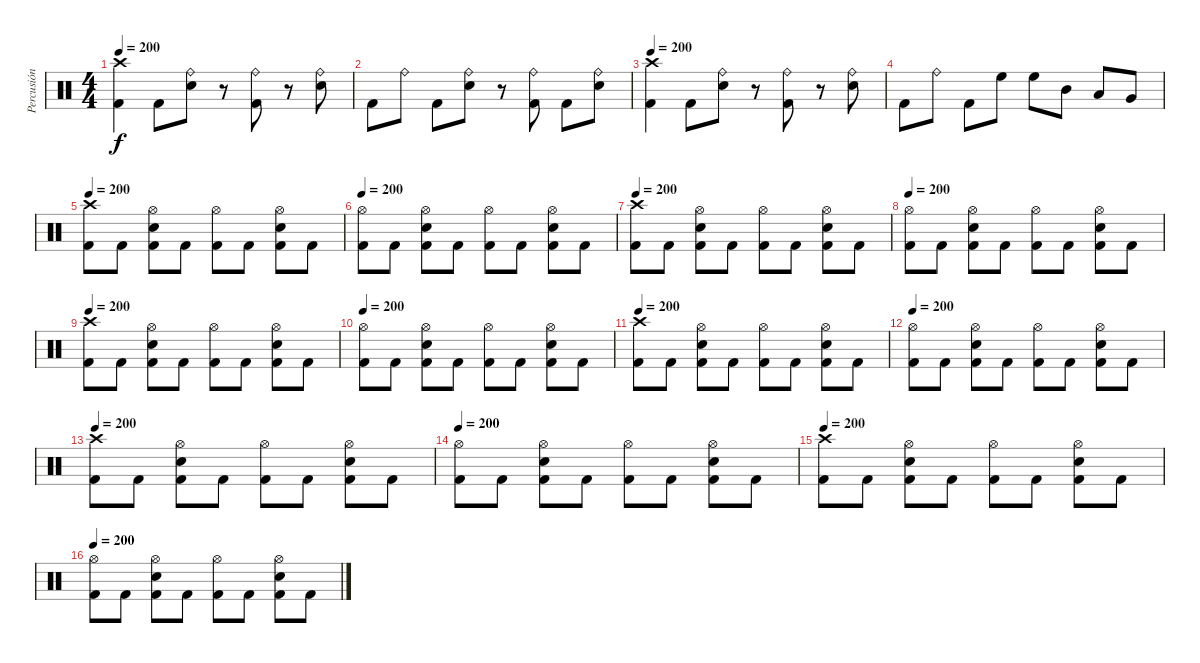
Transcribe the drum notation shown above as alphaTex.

\track ("Percusión" "Percusión") {instrument percussion}
\staff {score}
\articulation defaults
\ts (4 4)
\tempo 200
\clef neutral
\ks c
("Crash high (hit)" "Kick (hit) 2").4{dy f} "Kick (hit) 2".8 ("Ride (bell)" "Electric Snare (hit)").8 r.8 ("Ride (bell)" "Kick (hit) 2").8 r.8 ("Ride (bell)" "Electric Snare (hit)").8 |
"Kick (hit) 2".8 "Ride (bell)".8 "Kick (hit) 2".8 ("Ride (bell)" "Electric Snare (hit)").8 r.8 ("Ride (bell)" "Kick (hit) 2").8 "Kick (hit) 2".8 ("Ride (bell)" "Electric Snare (hit)").8 |
\tempo 200
("Crash high (hit)" "Kick (hit) 2").4 "Kick (hit) 2".8 ("Ride (bell)" "Electric Snare (hit)").8 r.8 ("Ride (bell)" "Kick (hit) 2").8 r.8 ("Ride (bell)" "Electric Snare (hit)").8 |
"Kick (hit) 2".8 "Ride (bell)".8 "Kick (hit) 2".8 "High Floor Tom (hit)".8 "High Floor Tom (hit)".8 "Mid Tom (hit)".8 "Low Tom (hit)".8 "Very Low Tom (hit)".8 |
\tempo 200
("Crash high (hit)" "Kick (hit) 2").8 "Kick (hit) 2".8 ("Hi-Hat (open)" "Kick (hit) 2" "Electric Snare (hit)").8 "Kick (hit) 2".8 ("Hi-Hat (open)" "Kick (hit) 2").8 "Kick (hit) 2".8 ("Hi-Hat (open)" "Kick (hit) 2" "Electric Snare (hit)").8 "Kick (hit) 2".8 |
\tempo 200
("Hi-Hat (open)" "Kick (hit) 2").8 "Kick (hit) 2".8 ("Hi-Hat (open)" "Kick (hit) 2" "Electric Snare (hit)").8 "Kick (hit) 2".8 ("Hi-Hat (open)" "Kick (hit) 2").8 "Kick (hit) 2".8 ("Hi-Hat (open)" "Kick (hit) 2" "Electric Snare (hit)").8 "Kick (hit) 2".8 |
\tempo 200
("Crash high (hit)" "Kick (hit) 2").8 "Kick (hit) 2".8 ("Hi-Hat (open)" "Kick (hit) 2" "Electric Snare (hit)").8 "Kick (hit) 2".8 ("Hi-Hat (open)" "Kick (hit) 2").8 "Kick (hit) 2".8 ("Hi-Hat (open)" "Kick (hit) 2" "Electric Snare (hit)").8 "Kick (hit) 2".8 |
\tempo 200
("Hi-Hat (open)" "Kick (hit) 2").8 "Kick (hit) 2".8 ("Hi-Hat (open)" "Kick (hit) 2" "Electric Snare (hit)").8 "Kick (hit) 2".8 ("Hi-Hat (open)" "Kick (hit) 2").8 "Kick (hit) 2".8 ("Hi-Hat (open)" "Kick (hit) 2" "Electric Snare (hit)").8 "Kick (hit) 2".8 |
\tempo 200
("Crash high (hit)" "Kick (hit) 2").8 "Kick (hit) 2".8 ("Hi-Hat (open)" "Kick (hit) 2" "Electric Snare (hit)").8 "Kick (hit) 2".8 ("Hi-Hat (open)" "Kick (hit) 2").8 "Kick (hit) 2".8 ("Hi-Hat (open)" "Kick (hit) 2" "Electric Snare (hit)").8 "Kick (hit) 2".8 |
\tempo 200
("Hi-Hat (open)" "Kick (hit) 2").8 "Kick (hit) 2".8 ("Hi-Hat (open)" "Kick (hit) 2" "Electric Snare (hit)").8 "Kick (hit) 2".8 ("Hi-Hat (open)" "Kick (hit) 2").8 "Kick (hit) 2".8 ("Hi-Hat (open)" "Kick (hit) 2" "Electric Snare (hit)").8 "Kick (hit) 2".8 |
\tempo 200
("Crash high (hit)" "Kick (hit) 2").8 "Kick (hit) 2".8 ("Hi-Hat (open)" "Kick (hit) 2" "Electric Snare (hit)").8 "Kick (hit) 2".8 ("Hi-Hat (open)" "Kick (hit) 2").8 "Kick (hit) 2".8 ("Hi-Hat (open)" "Kick (hit) 2" "Electric Snare (hit)").8 "Kick (hit) 2".8 |
\tempo 200
("Hi-Hat (open)" "Kick (hit) 2").8 "Kick (hit) 2".8 ("Hi-Hat (open)" "Kick (hit) 2" "Electric Snare (hit)").8 "Kick (hit) 2".8 ("Hi-Hat (open)" "Kick (hit) 2").8 "Kick (hit) 2".8 ("Hi-Hat (open)" "Kick (hit) 2" "Electric Snare (hit)").8 "Kick (hit) 2".8 |
\tempo 200
("Crash high (hit)" "Kick (hit) 2").8 "Kick (hit) 2".8 ("Hi-Hat (open)" "Kick (hit) 2" "Electric Snare (hit)").8 "Kick (hit) 2".8 ("Hi-Hat (open)" "Kick (hit) 2").8 "Kick (hit) 2".8 ("Hi-Hat (open)" "Kick (hit) 2" "Electric Snare (hit)").8 "Kick (hit) 2".8 |
\tempo 200
("Hi-Hat (open)" "Kick (hit) 2").8 "Kick (hit) 2".8 ("Hi-Hat (open)" "Kick (hit) 2" "Electric Snare (hit)").8 "Kick (hit) 2".8 ("Hi-Hat (open)" "Kick (hit) 2").8 "Kick (hit) 2".8 ("Hi-Hat (open)" "Kick (hit) 2" "Electric Snare (hit)").8 "Kick (hit) 2".8 |
\tempo 200
("Crash high (hit)" "Kick (hit) 2").8 "Kick (hit) 2".8 ("Hi-Hat (open)" "Kick (hit) 2" "Electric Snare (hit)").8 "Kick (hit) 2".8 ("Hi-Hat (open)" "Kick (hit) 2").8 "Kick (hit) 2".8 ("Hi-Hat (open)" "Kick (hit) 2" "Electric Snare (hit)").8 "Kick (hit) 2".8 |
\tempo 200
("Hi-Hat (open)" "Kick (hit) 2").8 "Kick (hit) 2".8 ("Hi-Hat (open)" "Kick (hit) 2" "Electric Snare (hit)").8 "Kick (hit) 2".8 ("Hi-Hat (open)" "Kick (hit) 2").8 "Kick (hit) 2".8 ("Hi-Hat (open)" "Kick (hit) 2" "Electric Snare (hit)").8 "Kick (hit) 2".8
